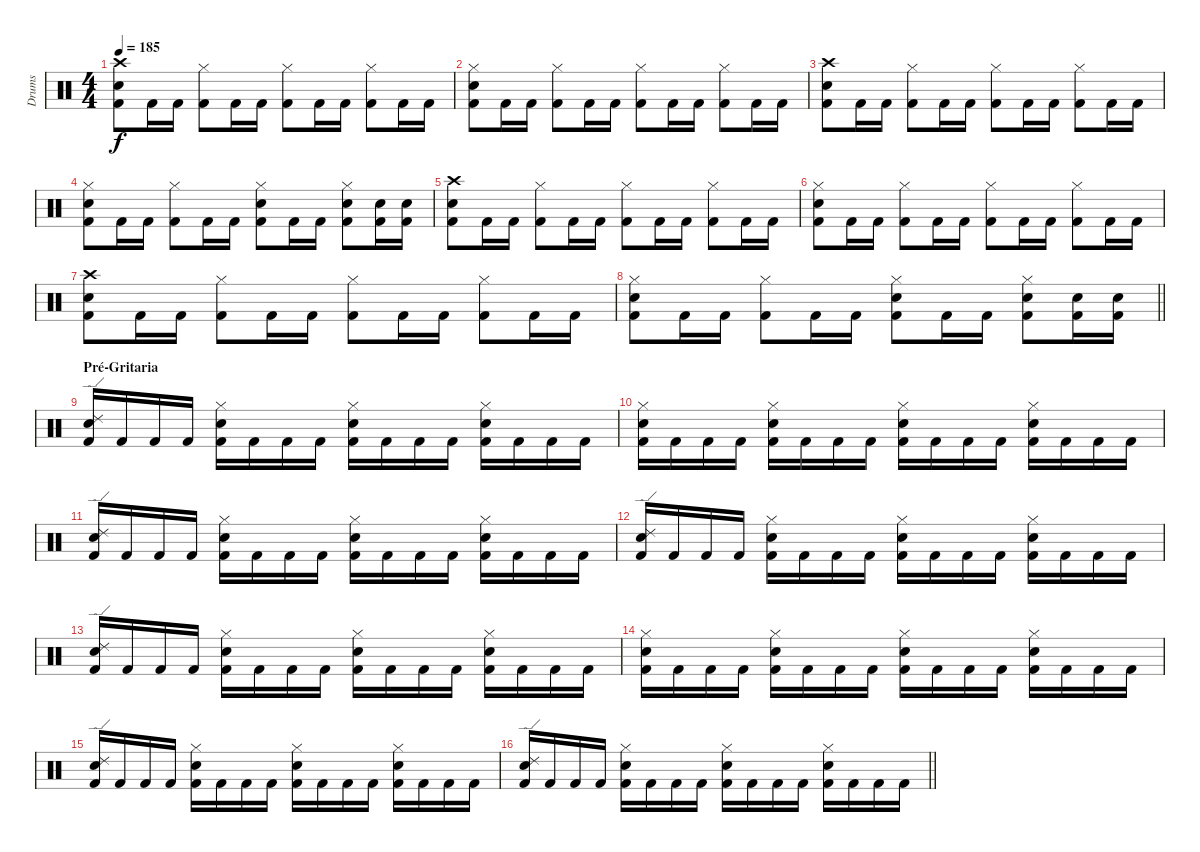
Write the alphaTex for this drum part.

\track ("Drums" "Drums") {instrument percussion}
\staff {score}
\articulation defaults
\ts (4 4)
\tempo 185
\clef neutral
\ks c
("Crash high (hit)" "Electric Snare (hit)" "Kick (hit) 2").8{dy f} "Kick (hit) 2".16 "Kick (hit) 2".16 ("Hi-Hat (closed)" "Kick (hit) 2").8 "Kick (hit) 2".16 "Kick (hit) 2".16 ("Hi-Hat (closed)" "Kick (hit) 2").8 "Kick (hit) 2".16 "Kick (hit) 2".16 ("Hi-Hat (closed)" "Kick (hit) 2").8 "Kick (hit) 2".16 "Kick (hit) 2".16 |
("Hi-Hat (closed)" "Electric Snare (hit)" "Kick (hit) 2").8 "Kick (hit) 2".16 "Kick (hit) 2".16 ("Hi-Hat (closed)" "Kick (hit) 2").8 "Kick (hit) 2".16 "Kick (hit) 2".16 ("Hi-Hat (closed)" "Kick (hit) 2").8 "Kick (hit) 2".16 "Kick (hit) 2".16 ("Hi-Hat (closed)" "Kick (hit) 2").8 "Kick (hit) 2".16 "Kick (hit) 2".16 |
("Crash high (hit)" "Electric Snare (hit)" "Kick (hit) 2").8 "Kick (hit) 2".16 "Kick (hit) 2".16 ("Hi-Hat (closed)" "Kick (hit) 2").8 "Kick (hit) 2".16 "Kick (hit) 2".16 ("Hi-Hat (closed)" "Kick (hit) 2").8 "Kick (hit) 2".16 "Kick (hit) 2".16 ("Hi-Hat (closed)" "Kick (hit) 2").8 "Kick (hit) 2".16 "Kick (hit) 2".16 |
("Hi-Hat (closed)" "Electric Snare (hit)" "Kick (hit) 2").8 "Kick (hit) 2".16 "Kick (hit) 2".16 ("Hi-Hat (closed)" "Kick (hit) 2").8 "Kick (hit) 2".16 "Kick (hit) 2".16 ("Hi-Hat (closed)" "Electric Snare (hit)" "Kick (hit) 2").8 "Kick (hit) 2".16 "Kick (hit) 2".16 ("Hi-Hat (closed)" "Electric Snare (hit)" "Kick (hit) 2").8 ("Electric Snare (hit)" "Kick (hit) 2").16 ("Electric Snare (hit)" "Kick (hit) 2").16 |
("Crash high (hit)" "Electric Snare (hit)" "Kick (hit) 2").8 "Kick (hit) 2".16 "Kick (hit) 2".16 ("Hi-Hat (closed)" "Kick (hit) 2").8 "Kick (hit) 2".16 "Kick (hit) 2".16 ("Hi-Hat (closed)" "Kick (hit) 2").8 "Kick (hit) 2".16 "Kick (hit) 2".16 ("Hi-Hat (closed)" "Kick (hit) 2").8 "Kick (hit) 2".16 "Kick (hit) 2".16 |
("Hi-Hat (closed)" "Electric Snare (hit)" "Kick (hit) 2").8 "Kick (hit) 2".16 "Kick (hit) 2".16 ("Hi-Hat (closed)" "Kick (hit) 2").8 "Kick (hit) 2".16 "Kick (hit) 2".16 ("Hi-Hat (closed)" "Kick (hit) 2").8 "Kick (hit) 2".16 "Kick (hit) 2".16 ("Hi-Hat (closed)" "Kick (hit) 2").8 "Kick (hit) 2".16 "Kick (hit) 2".16 |
("Crash high (hit)" "Electric Snare (hit)" "Kick (hit) 2").8 "Kick (hit) 2".16 "Kick (hit) 2".16 ("Hi-Hat (closed)" "Kick (hit) 2").8 "Kick (hit) 2".16 "Kick (hit) 2".16 ("Hi-Hat (closed)" "Kick (hit) 2").8 "Kick (hit) 2".16 "Kick (hit) 2".16 ("Hi-Hat (closed)" "Kick (hit) 2").8 "Kick (hit) 2".16 "Kick (hit) 2".16 |
\barLineRight lightlight
("Hi-Hat (closed)" "Electric Snare (hit)" "Kick (hit) 2").8 "Kick (hit) 2".16 "Kick (hit) 2".16 ("Hi-Hat (closed)" "Kick (hit) 2").8 "Kick (hit) 2".16 "Kick (hit) 2".16 ("Hi-Hat (closed)" "Electric Snare (hit)" "Kick (hit) 2").8 "Kick (hit) 2".16 "Kick (hit) 2".16 ("Hi-Hat (closed)" "Electric Snare (hit)" "Kick (hit) 2").8 ("Electric Snare (hit)" "Kick (hit) 2").16 ("Electric Snare (hit)" "Kick (hit) 2").16 |
\section ("" "Pré-Gritaria")
("Electric Snare (hit)" "Ride (edge) 2" "Kick (hit) 2").16 "Kick (hit) 2".16 "Kick (hit) 2".16 "Kick (hit) 2".16 ("Hi-Hat (closed)" "Electric Snare (hit)" "Kick (hit) 2").16 "Kick (hit) 2".16 "Kick (hit) 2".16 "Kick (hit) 2".16 ("Electric Snare (hit)" "Hi-Hat (closed)" "Kick (hit) 2").16 "Kick (hit) 2".16 "Kick (hit) 2".16 "Kick (hit) 2".16 ("Hi-Hat (closed)" "Electric Snare (hit)" "Kick (hit) 2").16 "Kick (hit) 2".16 "Kick (hit) 2".16 "Kick (hit) 2".16 |
("Electric Snare (hit)" "Hi-Hat (closed)" "Kick (hit) 2").16 "Kick (hit) 2".16 "Kick (hit) 2".16 "Kick (hit) 2".16 ("Hi-Hat (closed)" "Electric Snare (hit)" "Kick (hit) 2").16 "Kick (hit) 2".16 "Kick (hit) 2".16 "Kick (hit) 2".16 ("Electric Snare (hit)" "Hi-Hat (closed)" "Kick (hit) 2").16 "Kick (hit) 2".16 "Kick (hit) 2".16 "Kick (hit) 2".16 ("Hi-Hat (closed)" "Electric Snare (hit)" "Kick (hit) 2").16 "Kick (hit) 2".16 "Kick (hit) 2".16 "Kick (hit) 2".16 |
("Electric Snare (hit)" "Ride (edge) 2" "Kick (hit) 2").16 "Kick (hit) 2".16 "Kick (hit) 2".16 "Kick (hit) 2".16 ("Hi-Hat (closed)" "Electric Snare (hit)" "Kick (hit) 2").16 "Kick (hit) 2".16 "Kick (hit) 2".16 "Kick (hit) 2".16 ("Electric Snare (hit)" "Hi-Hat (closed)" "Kick (hit) 2").16 "Kick (hit) 2".16 "Kick (hit) 2".16 "Kick (hit) 2".16 ("Hi-Hat (closed)" "Electric Snare (hit)" "Kick (hit) 2").16 "Kick (hit) 2".16 "Kick (hit) 2".16 "Kick (hit) 2".16 |
("Electric Snare (hit)" "Ride (edge) 2" "Kick (hit) 2").16 "Kick (hit) 2".16 "Kick (hit) 2".16 "Kick (hit) 2".16 ("Hi-Hat (closed)" "Electric Snare (hit)" "Kick (hit) 2").16 "Kick (hit) 2".16 "Kick (hit) 2".16 "Kick (hit) 2".16 ("Electric Snare (hit)" "Hi-Hat (closed)" "Kick (hit) 2").16 "Kick (hit) 2".16 "Kick (hit) 2".16 "Kick (hit) 2".16 ("Hi-Hat (closed)" "Electric Snare (hit)" "Kick (hit) 2").16 "Kick (hit) 2".16 "Kick (hit) 2".16 "Kick (hit) 2".16 |
("Electric Snare (hit)" "Ride (edge) 2" "Kick (hit) 2").16 "Kick (hit) 2".16 "Kick (hit) 2".16 "Kick (hit) 2".16 ("Hi-Hat (closed)" "Electric Snare (hit)" "Kick (hit) 2").16 "Kick (hit) 2".16 "Kick (hit) 2".16 "Kick (hit) 2".16 ("Electric Snare (hit)" "Hi-Hat (closed)" "Kick (hit) 2").16 "Kick (hit) 2".16 "Kick (hit) 2".16 "Kick (hit) 2".16 ("Hi-Hat (closed)" "Electric Snare (hit)" "Kick (hit) 2").16 "Kick (hit) 2".16 "Kick (hit) 2".16 "Kick (hit) 2".16 |
("Electric Snare (hit)" "Hi-Hat (closed)" "Kick (hit) 2").16 "Kick (hit) 2".16 "Kick (hit) 2".16 "Kick (hit) 2".16 ("Hi-Hat (closed)" "Electric Snare (hit)" "Kick (hit) 2").16 "Kick (hit) 2".16 "Kick (hit) 2".16 "Kick (hit) 2".16 ("Electric Snare (hit)" "Hi-Hat (closed)" "Kick (hit) 2").16 "Kick (hit) 2".16 "Kick (hit) 2".16 "Kick (hit) 2".16 ("Hi-Hat (closed)" "Electric Snare (hit)" "Kick (hit) 2").16 "Kick (hit) 2".16 "Kick (hit) 2".16 "Kick (hit) 2".16 |
("Electric Snare (hit)" "Ride (edge) 2" "Kick (hit) 2").16 "Kick (hit) 2".16 "Kick (hit) 2".16 "Kick (hit) 2".16 ("Hi-Hat (closed)" "Electric Snare (hit)" "Kick (hit) 2").16 "Kick (hit) 2".16 "Kick (hit) 2".16 "Kick (hit) 2".16 ("Electric Snare (hit)" "Hi-Hat (closed)" "Kick (hit) 2").16 "Kick (hit) 2".16 "Kick (hit) 2".16 "Kick (hit) 2".16 ("Hi-Hat (closed)" "Electric Snare (hit)" "Kick (hit) 2").16 "Kick (hit) 2".16 "Kick (hit) 2".16 "Kick (hit) 2".16 |
\barLineRight lightlight
("Electric Snare (hit)" "Ride (edge) 2" "Kick (hit) 2").16 "Kick (hit) 2".16 "Kick (hit) 2".16 "Kick (hit) 2".16 ("Hi-Hat (closed)" "Electric Snare (hit)" "Kick (hit) 2").16 "Kick (hit) 2".16 "Kick (hit) 2".16 "Kick (hit) 2".16 ("Electric Snare (hit)" "Hi-Hat (closed)" "Kick (hit) 2").16 "Kick (hit) 2".16 "Kick (hit) 2".16 "Kick (hit) 2".16 ("Hi-Hat (closed)" "Electric Snare (hit)" "Kick (hit) 2").16 "Kick (hit) 2".16 "Kick (hit) 2".16 "Kick (hit) 2".16
